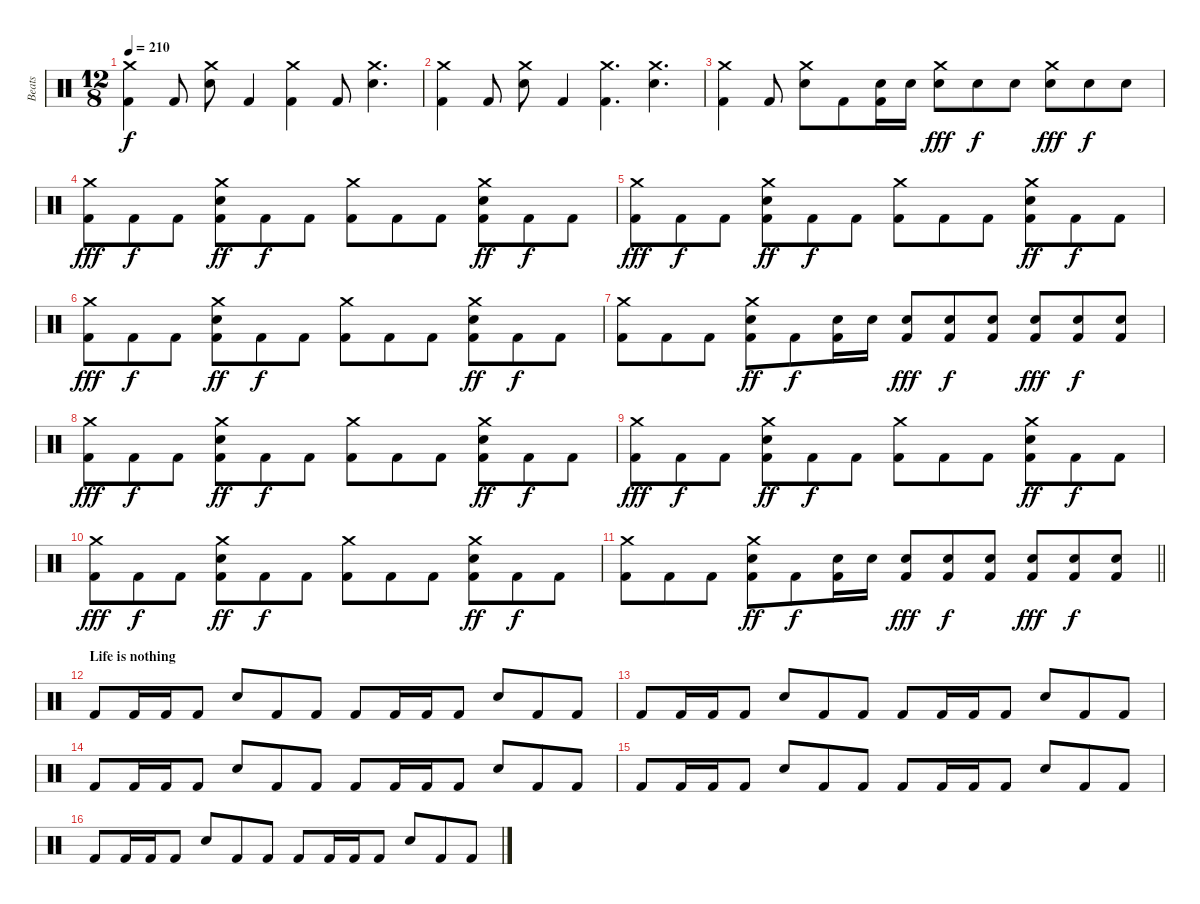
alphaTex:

\track ("Beats" "Beats") {instrument percussion}
\staff {score}
\articulation defaults
\ts (12 8)
\tempo 210
\clef neutral
\ks c
("Crash medium (hit)" "Kick (hit) 2").4{dy f} "Kick (hit) 2".8 ("Crash medium (hit)" "Snare (hit) 2").8 "Kick (hit) 2".4 ("Crash medium (hit)" "Kick (hit) 2").4 "Kick (hit) 2".8 ("Crash medium (hit)" "Snare (hit) 2").4{d} |
("Crash medium (hit)" "Kick (hit) 2").4 "Kick (hit) 2".8 ("Crash medium (hit)" "Snare (hit) 2").8 "Kick (hit) 2".4 ("Crash medium (hit)" "Kick (hit) 2").4{d} ("Crash medium (hit)" "Snare (hit) 2").4{d} |
("Crash medium (hit)" "Kick (hit) 2").4 "Kick (hit) 2".8 ("Crash medium (hit)" "Snare (hit) 2").8 "Kick (hit) 2".8 ("Snare (hit) 2" "Kick (hit) 2").16 "Snare (hit) 2".16 ("Crash medium (hit)" "Snare (hit) 2").8{dy fff} "Snare (hit) 2".8{dy f} "Snare (hit) 2".8 ("Crash medium (hit)" "Snare (hit) 2").8{dy fff} "Snare (hit) 2".8{dy f} "Snare (hit) 2".8 |
("Crash medium (hit)" "Kick (hit) 2").8{dy fff} "Kick (hit) 2".8{dy f} "Kick (hit) 2".8 ("Crash medium (hit)" "Snare (hit) 2" "Kick (hit) 2").8{dy ff} "Kick (hit) 2".8{dy f} "Kick (hit) 2".8 ("Crash medium (hit)" "Kick (hit) 2").8 "Kick (hit) 2".8 "Kick (hit) 2".8 ("Crash medium (hit)" "Snare (hit) 2" "Kick (hit) 2").8{dy ff} "Kick (hit) 2".8{dy f} "Kick (hit) 2".8 |
("Crash medium (hit)" "Kick (hit) 2").8{dy fff} "Kick (hit) 2".8{dy f} "Kick (hit) 2".8 ("Crash medium (hit)" "Snare (hit) 2" "Kick (hit) 2").8{dy ff} "Kick (hit) 2".8{dy f} "Kick (hit) 2".8 ("Crash medium (hit)" "Kick (hit) 2").8 "Kick (hit) 2".8 "Kick (hit) 2".8 ("Crash medium (hit)" "Snare (hit) 2" "Kick (hit) 2").8{dy ff} "Kick (hit) 2".8{dy f} "Kick (hit) 2".8 |
("Crash medium (hit)" "Kick (hit) 2").8{dy fff} "Kick (hit) 2".8{dy f} "Kick (hit) 2".8 ("Crash medium (hit)" "Snare (hit) 2" "Kick (hit) 2").8{dy ff} "Kick (hit) 2".8{dy f} "Kick (hit) 2".8 ("Crash medium (hit)" "Kick (hit) 2").8 "Kick (hit) 2".8 "Kick (hit) 2".8 ("Crash medium (hit)" "Snare (hit) 2" "Kick (hit) 2").8{dy ff} "Kick (hit) 2".8{dy f} "Kick (hit) 2".8 |
("Crash medium (hit)" "Kick (hit) 2").8 "Kick (hit) 2".8 "Kick (hit) 2".8 ("Crash medium (hit)" "Snare (hit) 2" "Kick (hit) 2").8{dy ff} "Kick (hit) 2".8{dy f} ("Snare (hit) 2" "Kick (hit) 2").16 "Snare (hit) 2".16 ("Snare (hit) 2" "Kick (hit) 2").8{dy fff} ("Snare (hit) 2" "Kick (hit) 2").8{dy f} ("Snare (hit) 2" "Kick (hit) 2").8 ("Snare (hit) 2" "Kick (hit) 2").8{dy fff} ("Snare (hit) 2" "Kick (hit) 2").8{dy f} ("Snare (hit) 2" "Kick (hit) 2").8 |
("Crash medium (hit)" "Kick (hit) 2").8{dy fff} "Kick (hit) 2".8{dy f} "Kick (hit) 2".8 ("Crash medium (hit)" "Snare (hit) 2" "Kick (hit) 2").8{dy ff} "Kick (hit) 2".8{dy f} "Kick (hit) 2".8 ("Crash medium (hit)" "Kick (hit) 2").8 "Kick (hit) 2".8 "Kick (hit) 2".8 ("Crash medium (hit)" "Snare (hit) 2" "Kick (hit) 2").8{dy ff} "Kick (hit) 2".8{dy f} "Kick (hit) 2".8 |
("Crash medium (hit)" "Kick (hit) 2").8{dy fff} "Kick (hit) 2".8{dy f} "Kick (hit) 2".8 ("Crash medium (hit)" "Snare (hit) 2" "Kick (hit) 2").8{dy ff} "Kick (hit) 2".8{dy f} "Kick (hit) 2".8 ("Crash medium (hit)" "Kick (hit) 2").8 "Kick (hit) 2".8 "Kick (hit) 2".8 ("Crash medium (hit)" "Snare (hit) 2" "Kick (hit) 2").8{dy ff} "Kick (hit) 2".8{dy f} "Kick (hit) 2".8 |
("Crash medium (hit)" "Kick (hit) 2").8{dy fff} "Kick (hit) 2".8{dy f} "Kick (hit) 2".8 ("Crash medium (hit)" "Snare (hit) 2" "Kick (hit) 2").8{dy ff} "Kick (hit) 2".8{dy f} "Kick (hit) 2".8 ("Crash medium (hit)" "Kick (hit) 2").8 "Kick (hit) 2".8 "Kick (hit) 2".8 ("Crash medium (hit)" "Snare (hit) 2" "Kick (hit) 2").8{dy ff} "Kick (hit) 2".8{dy f} "Kick (hit) 2".8 |
\barLineRight lightlight
("Crash medium (hit)" "Kick (hit) 2").8 "Kick (hit) 2".8 "Kick (hit) 2".8 ("Crash medium (hit)" "Snare (hit) 2" "Kick (hit) 2").8{dy ff} "Kick (hit) 2".8{dy f} ("Snare (hit) 2" "Kick (hit) 2").16 "Snare (hit) 2".16 ("Snare (hit) 2" "Kick (hit) 2").8{dy fff} ("Snare (hit) 2" "Kick (hit) 2").8{dy f} ("Snare (hit) 2" "Kick (hit) 2").8 ("Snare (hit) 2" "Kick (hit) 2").8{dy fff} ("Snare (hit) 2" "Kick (hit) 2").8{dy f} ("Snare (hit) 2" "Kick (hit) 2").8 |
\section ("" "Life is nothing")
"Kick (hit) 2".8 "Kick (hit) 2".16 "Kick (hit) 2".16 "Kick (hit) 2".8 "Snare (hit) 2".8 "Kick (hit) 2".8 "Kick (hit) 2".8 "Kick (hit) 2".8 "Kick (hit) 2".16 "Kick (hit) 2".16 "Kick (hit) 2".8 "Snare (hit) 2".8 "Kick (hit) 2".8 "Kick (hit) 2".8 |
"Kick (hit) 2".8 "Kick (hit) 2".16 "Kick (hit) 2".16 "Kick (hit) 2".8 "Snare (hit) 2".8 "Kick (hit) 2".8 "Kick (hit) 2".8 "Kick (hit) 2".8 "Kick (hit) 2".16 "Kick (hit) 2".16 "Kick (hit) 2".8 "Snare (hit) 2".8 "Kick (hit) 2".8 "Kick (hit) 2".8 |
"Kick (hit) 2".8 "Kick (hit) 2".16 "Kick (hit) 2".16 "Kick (hit) 2".8 "Snare (hit) 2".8 "Kick (hit) 2".8 "Kick (hit) 2".8 "Kick (hit) 2".8 "Kick (hit) 2".16 "Kick (hit) 2".16 "Kick (hit) 2".8 "Snare (hit) 2".8 "Kick (hit) 2".8 "Kick (hit) 2".8 |
"Kick (hit) 2".8 "Kick (hit) 2".16 "Kick (hit) 2".16 "Kick (hit) 2".8 "Snare (hit) 2".8 "Kick (hit) 2".8 "Kick (hit) 2".8 "Kick (hit) 2".8 "Kick (hit) 2".16 "Kick (hit) 2".16 "Kick (hit) 2".8 "Snare (hit) 2".8 "Kick (hit) 2".8 "Kick (hit) 2".8 |
"Kick (hit) 2".8 "Kick (hit) 2".16 "Kick (hit) 2".16 "Kick (hit) 2".8 "Snare (hit) 2".8 "Kick (hit) 2".8 "Kick (hit) 2".8 "Kick (hit) 2".8 "Kick (hit) 2".16 "Kick (hit) 2".16 "Kick (hit) 2".8 "Snare (hit) 2".8 "Kick (hit) 2".8 "Kick (hit) 2".8
